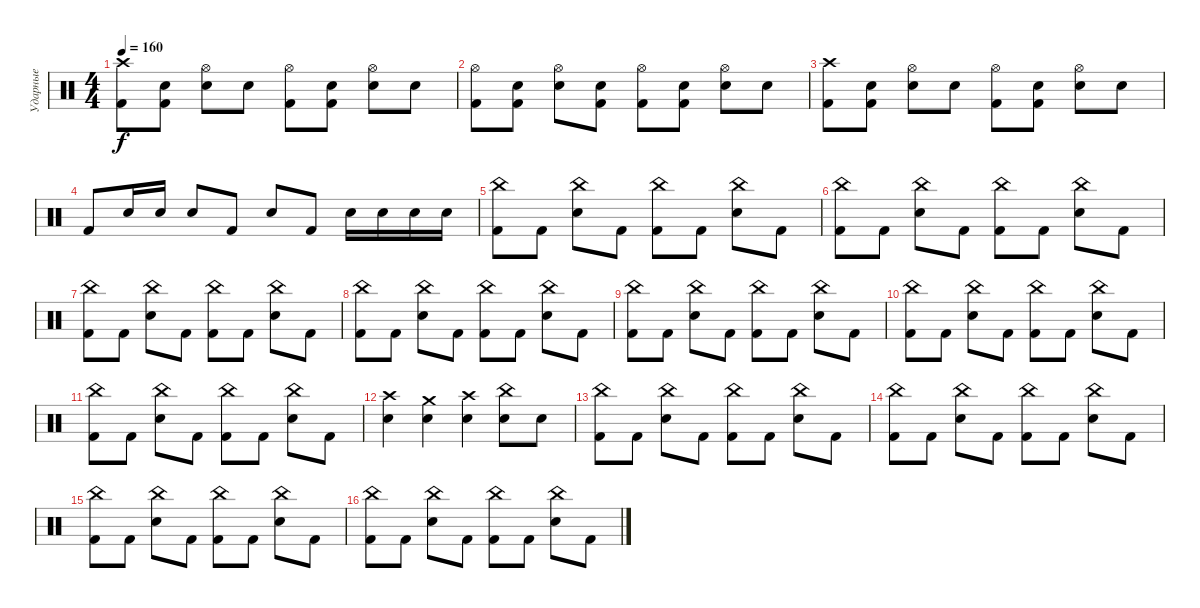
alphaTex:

\track ("Ударные" "Ударные") {instrument percussion}
\staff {score}
\articulation defaults
\ts (4 4)
\tempo 160
\clef neutral
\ks c
("Crash high (hit)" "Kick (hit) 2").8{dy f} ("Snare (hit)" "Kick (hit) 2").8 ("Hi-Hat (open)" "Electric Snare (hit)").8 "Snare (hit)".8 ("Hi-Hat (open)" "Kick (hit) 2").8 ("Snare (hit)" "Kick (hit) 2").8 ("Hi-Hat (open)" "Electric Snare (hit)").8 "Snare (hit)".8 |
("Hi-Hat (open)" "Kick (hit) 2").8 ("Snare (hit)" "Kick (hit) 2").8 ("Hi-Hat (open)" "Electric Snare (hit)").8 ("Snare (hit)" "Kick (hit) 2").8 ("Hi-Hat (open)" "Kick (hit) 2").8 ("Snare (hit)" "Kick (hit) 2").8 ("Hi-Hat (open)" "Electric Snare (hit)").8 "Snare (hit)".8 |
("Crash high (hit)" "Kick (hit) 2").8 ("Snare (hit)" "Kick (hit) 2").8 ("Hi-Hat (open)" "Electric Snare (hit)").8 "Snare (hit)".8 ("Hi-Hat (open)" "Kick (hit) 2").8 ("Snare (hit)" "Kick (hit) 2").8 ("Hi-Hat (open)" "Electric Snare (hit)").8 "Snare (hit)".8 |
"Kick (hit) 2".8 "Electric Snare (hit)".16 "Electric Snare (hit)".16 "Electric Snare (hit)".8 "Kick (hit) 2".8 "Electric Snare (hit)".8 "Kick (hit) 2".8 "Electric Snare (hit)".16 "Electric Snare (hit)".16 "Electric Snare (hit)".16 "Electric Snare (hit)".16 |
("Kick (hit) 2" "China (hit)").8 "Kick (hit) 2".8 ("Electric Snare (hit)" "China (hit)").8 "Kick (hit) 2".8 ("Kick (hit) 2" "China (hit)").8 "Kick (hit) 2".8 ("Electric Snare (hit)" "China (hit)").8 "Kick (hit) 2".8 |
("Kick (hit) 2" "China (hit)").8 "Kick (hit) 2".8 ("Electric Snare (hit)" "China (hit)").8 "Kick (hit) 2".8 ("Kick (hit) 2" "China (hit)").8 "Kick (hit) 2".8 ("Electric Snare (hit)" "China (hit)").8 "Kick (hit) 2".8 |
("Kick (hit) 2" "China (hit)").8 "Kick (hit) 2".8 ("Electric Snare (hit)" "China (hit)").8 "Kick (hit) 2".8 ("Kick (hit) 2" "China (hit)").8 "Kick (hit) 2".8 ("Electric Snare (hit)" "China (hit)").8 "Kick (hit) 2".8 |
("Kick (hit) 2" "China (hit)").8 "Kick (hit) 2".8 ("Electric Snare (hit)" "China (hit)").8 "Kick (hit) 2".8 ("Kick (hit) 2" "China (hit)").8 "Kick (hit) 2".8 ("Electric Snare (hit)" "China (hit)").8 "Kick (hit) 2".8 |
("Kick (hit) 2" "China (hit)").8 "Kick (hit) 2".8 ("Electric Snare (hit)" "China (hit)").8 "Kick (hit) 2".8 ("Kick (hit) 2" "China (hit)").8 "Kick (hit) 2".8 ("Electric Snare (hit)" "China (hit)").8 "Kick (hit) 2".8 |
("Kick (hit) 2" "China (hit)").8 "Kick (hit) 2".8 ("Electric Snare (hit)" "China (hit)").8 "Kick (hit) 2".8 ("Kick (hit) 2" "China (hit)").8 "Kick (hit) 2".8 ("Electric Snare (hit)" "China (hit)").8 "Kick (hit) 2".8 |
("Kick (hit) 2" "China (hit)").8 "Kick (hit) 2".8 ("Electric Snare (hit)" "China (hit)").8 "Kick (hit) 2".8 ("Kick (hit) 2" "China (hit)").8 "Kick (hit) 2".8 ("Electric Snare (hit)" "China (hit)").8 "Kick (hit) 2".8 |
("Electric Snare (hit)" "Crash high (hit)").4 ("Electric Snare (hit)" "Crash medium (hit)").4 ("Electric Snare (hit)" "Crash high (hit)").4 ("Electric Snare (hit)" "China (hit)").8 "Electric Snare (hit)".8 |
("Kick (hit) 2" "China (hit)").8 "Kick (hit) 2".8 ("Electric Snare (hit)" "China (hit)").8 "Kick (hit) 2".8 ("Kick (hit) 2" "China (hit)").8 "Kick (hit) 2".8 ("Electric Snare (hit)" "China (hit)").8 "Kick (hit) 2".8 |
("Kick (hit) 2" "China (hit)").8 "Kick (hit) 2".8 ("Electric Snare (hit)" "China (hit)").8 "Kick (hit) 2".8 ("Kick (hit) 2" "China (hit)").8 "Kick (hit) 2".8 ("Electric Snare (hit)" "China (hit)").8 "Kick (hit) 2".8 |
("Kick (hit) 2" "China (hit)").8 "Kick (hit) 2".8 ("Electric Snare (hit)" "China (hit)").8 "Kick (hit) 2".8 ("Kick (hit) 2" "China (hit)").8 "Kick (hit) 2".8 ("Electric Snare (hit)" "China (hit)").8 "Kick (hit) 2".8 |
("Kick (hit) 2" "China (hit)").8 "Kick (hit) 2".8 ("Electric Snare (hit)" "China (hit)").8 "Kick (hit) 2".8 ("Kick (hit) 2" "China (hit)").8 "Kick (hit) 2".8 ("Electric Snare (hit)" "China (hit)").8 "Kick (hit) 2".8
